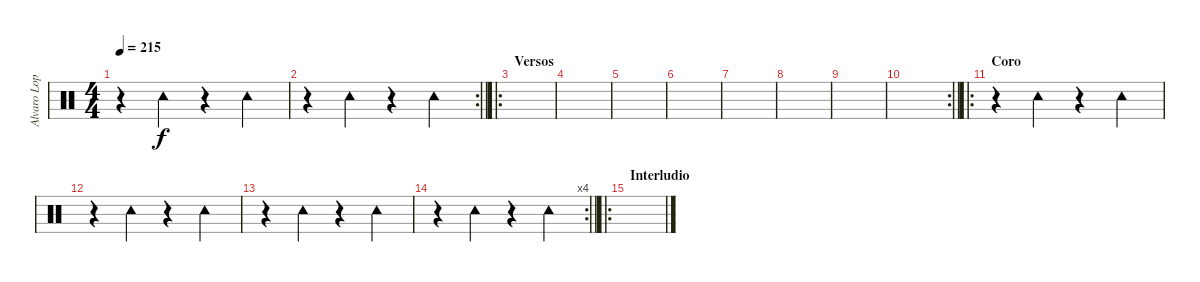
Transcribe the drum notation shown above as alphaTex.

\track ("Alvaro Lopez" "Alvaro Lop") {instrument percussion}
\staff {score}
\articulation defaults
\ts (4 4)
\tempo 215
\clef neutral
\ks c
r.4{dy f} "Tambourine (hit)".4 r.4 "Tambourine (hit)".4 |
\rc 2
\barLineRight lightlight
r.4 "Tambourine (hit)".4 r.4 "Tambourine (hit)".4 |
\ro
\section ("" "Versos")
|
|
|
|
|
|
|
\rc 2
\barLineRight lightlight
|
\ro
\section ("" "Coro")
r.4 "Tambourine (hit)".4 r.4 "Tambourine (hit)".4 |
r.4 "Tambourine (hit)".4 r.4 "Tambourine (hit)".4 |
r.4 "Tambourine (hit)".4 r.4 "Tambourine (hit)".4 |
\rc 4
\barLineRight lightlight
r.4 "Tambourine (hit)".4 r.4 "Tambourine (hit)".4 |
\ro
\section ("" "Interludio")
